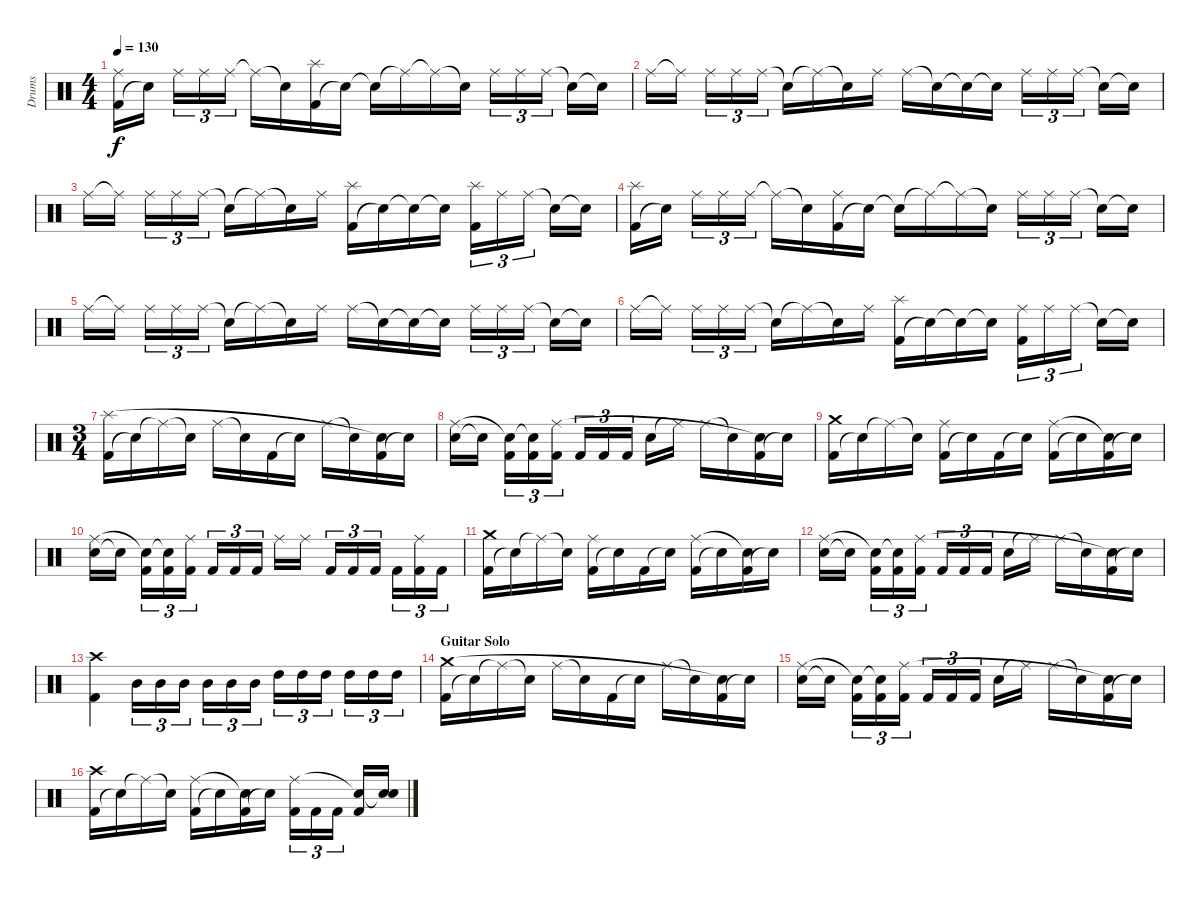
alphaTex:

\track ("Drums" "Drums") {instrument percussion}
\staff {score}
\articulation defaults
\ts (4 4)
\tempo 130
\tempo 120
\tempo 130
\clef neutral
\ks c
("Kick (hit) 2" "Ride (middle)").16{dy f} "Snare (hit)"{t}.16 "Ride (middle)".16{tu (3 2)} "Ride (middle)".16{tu (3 2)} "Ride (middle)".16{tu (3 2)} "Ride (middle)"{t}.16 "Snare (hit)"{t}.16 ("Kick (hit) 2" "Splash (hit)").16 "Snare (hit)"{t}.16 "Snare (hit)"{t}.16 "Ride (middle)"{t}.16 "Ride (middle)"{t}.16 "Snare (hit)"{t}.16 "Ride (middle)".16{tu (3 2)} "Ride (middle)".16{tu (3 2)} "Ride (middle)".16{tu (3 2)} "Snare (hit)"{t}.16 "Snare (hit)"{t}.16 |
"Ride (middle)".16 "Ride (middle)"{t}.16 "Ride (middle)".16{tu (3 2)} "Ride (middle)".16{tu (3 2)} "Ride (middle)".16{tu (3 2)} "Snare (hit)"{t}.16 "Ride (middle)"{t}.16 "Snare (hit)"{t}.16 "Ride (middle)".16 "Ride (middle)".16 "Snare (hit)"{t}.16 "Snare (hit)"{t}.16 "Snare (hit)"{t}.16 "Ride (middle)".16{tu (3 2)} "Ride (middle)".16{tu (3 2)} "Ride (middle)".16{tu (3 2)} "Snare (hit)"{t}.16 "Snare (hit)"{t}.16 |
"Ride (middle)".16 "Ride (middle)"{t}.16 "Ride (middle)".16{tu (3 2)} "Ride (middle)".16{tu (3 2)} "Ride (middle)".16{tu (3 2)} "Snare (hit)"{t}.16 "Ride (middle)"{t}.16 "Snare (hit)"{t}.16 "Ride (middle)".16 ("Kick (hit) 2" "Splash (hit)").16 "Snare (hit)"{t}.16 "Snare (hit)"{t}.16 "Snare (hit)"{t}.16 ("Kick (hit) 2" "Splash (hit)").16{tu (3 2)} "Ride (middle)".16{tu (3 2)} "Ride (middle)".16{tu (3 2)} "Snare (hit)"{t}.16 "Snare (hit)"{t}.16 |
("Kick (hit) 2" "Splash (hit)").16 "Snare (hit)"{t}.16 "Ride (middle)".16{tu (3 2)} "Ride (middle)".16{tu (3 2)} "Ride (middle)".16{tu (3 2)} "Ride (middle)"{t}.16 "Snare (hit)"{t}.16 ("Kick (hit) 2" "Ride (middle)").16 "Snare (hit)"{t}.16 "Snare (hit)"{t}.16 "Ride (middle)"{t}.16 "Ride (middle)"{t}.16 "Snare (hit)"{t}.16 "Ride (middle)".16{tu (3 2)} "Ride (middle)".16{tu (3 2)} "Ride (middle)".16{tu (3 2)} "Snare (hit)"{t}.16 "Snare (hit)"{t}.16 |
"Ride (middle)".16 "Ride (middle)"{t}.16 "Ride (middle)".16{tu (3 2)} "Ride (middle)".16{tu (3 2)} "Ride (middle)".16{tu (3 2)} "Snare (hit)"{t}.16 "Ride (middle)"{t}.16 "Snare (hit)"{t}.16 "Ride (middle)".16 "Ride (middle)".16 "Snare (hit)"{t}.16 "Snare (hit)"{t}.16 "Snare (hit)"{t}.16 "Ride (middle)".16{tu (3 2)} "Ride (middle)".16{tu (3 2)} "Ride (middle)".16{tu (3 2)} "Snare (hit)"{t}.16 "Snare (hit)"{t}.16 |
"Ride (middle)".16 "Ride (middle)"{t}.16 "Ride (middle)".16{tu (3 2)} "Ride (middle)".16{tu (3 2)} "Ride (middle)".16{tu (3 2)} "Snare (hit)"{t}.16 "Ride (middle)"{t}.16 "Snare (hit)"{t}.16 "Ride (middle)".16 ("Kick (hit) 2" "Splash (hit)").16 "Snare (hit)"{t}.16 "Snare (hit)"{t}.16 "Snare (hit)"{t}.16 ("Kick (hit) 2" "Ride (middle)").16{tu (3 2)} "Ride (middle)".16{tu (3 2)} "Ride (middle)".16{tu (3 2)} "Snare (hit)"{t}.16 "Snare (hit)"{t}.16 |
\ts (3 4)
("Kick (hit) 2" "Splash (hit)").16 "Snare (hit)"{t}.16 "Ride (middle)"{t}.16 "Snare (hit)"{t}.16 "Ride (middle)".16 "Snare (hit)"{t}.16 "Kick (hit) 2".16 "Snare (hit)"{t}.16 "Ride (middle)".16 "Snare (hit)"{t}.16 ("Kick (hit) 2" "Snare (hit) 2"{t}).16 "Snare (hit)"{t}.16 |
("Snare (hit) 2" "Ride (middle)").16 "Snare (hit)"{t}.16 ("Kick (hit) 2" "Snare (hit)"{t}).16{tu (3 2)} ("Kick (hit) 2" "Snare (hit)"{t}).16{tu (3 2)} ("Kick (hit) 2" "Ride (middle)").16{tu (3 2)} "Kick (hit) 2".16{tu (3 2)} "Kick (hit) 2".16{tu (3 2)} "Kick (hit) 2".16{tu (3 2)} "Snare (hit) 2".16 "Ride (middle)"{t}.16 "Ride (middle)".16 "Snare (hit)"{t}.16 ("Kick (hit) 2" "Snare (hit)"{t}).16 "Snare (hit)"{t}.16 |
("Kick (hit) 2" "Crash medium (hit)").16 "Snare (hit)"{t}.16 "Ride (middle)"{t}.16 "Snare (hit)"{t}.16 ("Kick (hit) 2" "Ride (middle)").16 "Snare (hit)"{t}.16 "Kick (hit) 2".16 "Snare (hit)"{t}.16 ("Kick (hit) 2" "Ride (middle)").16 "Snare (hit)"{t}.16 ("Kick (hit) 2" "Snare (hit) 2"{t}).16 "Snare (hit)"{t}.16 |
("Snare (hit) 2" "Ride (middle)").16 "Snare (hit)"{t}.16 ("Kick (hit) 2" "Snare (hit)"{t}).16{tu (3 2)} ("Kick (hit) 2" "Snare (hit)"{t}).16{tu (3 2)} ("Kick (hit) 2" "Ride (middle)").16{tu (3 2)} "Kick (hit) 2".16{tu (3 2)} "Kick (hit) 2".16{tu (3 2)} "Kick (hit) 2".16{tu (3 2)} "Ride (middle)".16 "Ride (middle)".16 "Kick (hit) 2".16{tu (3 2)} "Kick (hit) 2".16{tu (3 2)} "Kick (hit) 2".16{tu (3 2)} "Kick (hit) 2".16{tu (3 2)} ("Kick (hit) 2" "Ride (middle)").16{tu (3 2)} "Kick (hit) 2".16{tu (3 2)} |
("Kick (hit) 2" "Crash medium (hit)").16 "Snare (hit)"{t}.16 "Ride (middle)"{t}.16 "Snare (hit)"{t}.16 ("Kick (hit) 2" "Ride (middle)").16 "Snare (hit)"{t}.16 "Kick (hit) 2".16 "Snare (hit)"{t}.16 ("Kick (hit) 2" "Ride (middle)").16 "Snare (hit)"{t}.16 ("Kick (hit) 2" "Snare (hit) 2"{t}).16 "Snare (hit)"{t}.16 |
("Snare (hit) 2" "Ride (middle)").16 "Snare (hit)"{t}.16 ("Kick (hit) 2" "Snare (hit)"{t}).16{tu (3 2)} ("Kick (hit) 2" "Snare (hit)"{t}).16{tu (3 2)} ("Kick (hit) 2" "Ride (middle)").16{tu (3 2)} "Kick (hit) 2".16{tu (3 2)} "Kick (hit) 2".16{tu (3 2)} "Kick (hit) 2".16{tu (3 2)} "Snare (hit) 2".16 "Ride (middle)"{t}.16 "Ride (middle)".16 "Snare (hit)"{t}.16 ("Kick (hit) 2" "Snare (hit)"{t}).16 "Snare (hit)"{t}.16 |
("Kick (hit) 2" "Crash high (hit)").4 "Mid Tom (hit)".16{tu (3 2)} "Mid Tom (hit)".16{tu (3 2)} "Mid Tom (hit)".16{tu (3 2)} "Mid Tom (hit)".16{tu (3 2)} "Mid Tom (hit)".16{tu (3 2)} "Mid Tom (hit)".16{tu (3 2)} "High Tom (hit)".16{tu (3 2)} "High Tom (hit)".16{tu (3 2)} "High Tom (hit)".16{tu (3 2)} "High Tom (hit)".16{tu (3 2)} "High Tom (hit)".16{tu (3 2)} "High Tom (hit)".16{tu (3 2)} |
\section ("" "Guitar Solo")
("Kick (hit) 2" "Crash medium (hit)").16 "Snare (hit)"{t}.16 "Ride (middle)"{t}.16 "Snare (hit)"{t}.16 "Ride (middle)".16 "Snare (hit)"{t}.16 "Kick (hit) 2".16 "Snare (hit)"{t}.16 "Ride (middle)".16 "Snare (hit)"{t}.16 ("Kick (hit) 2" "Snare (hit) 2"{t}).16 "Snare (hit)"{t}.16 |
("Snare (hit) 2" "Ride (middle)").16 "Snare (hit)"{t}.16 ("Kick (hit) 2" "Snare (hit)"{t}).16{tu (3 2)} ("Kick (hit) 2" "Snare (hit)"{t}).16{tu (3 2)} ("Kick (hit) 2" "Ride (middle)").16{tu (3 2)} "Kick (hit) 2".16{tu (3 2)} "Kick (hit) 2".16{tu (3 2)} "Kick (hit) 2".16{tu (3 2)} "Snare (hit) 2".16 "Ride (middle)"{t}.16 "Ride (middle)".16 "Snare (hit)"{t}.16 ("Kick (hit) 2" "Snare (hit)"{t}).16 "Snare (hit)"{t}.16 |
("Kick (hit) 2" "Crash high (hit)").16 "Snare (hit)"{t}.16 "Ride (middle)"{t}.16 "Snare (hit)"{t}.16 ("Kick (hit) 2" "Ride (middle)").16 "Snare (hit)"{t}.16 ("Kick (hit) 2" "Snare (hit)"{t}).16 "Snare (hit)"{t}.16 ("Kick (hit) 2" "Ride (middle)").16{tu (3 2)} "Kick (hit) 2".16{tu (3 2)} "Kick (hit) 2".16{tu (3 2)} ("Kick (hit) 2" "Snare (hit)"{t}).16 ("Snare (hit) 2" "Snare (hit)"{t}).16
